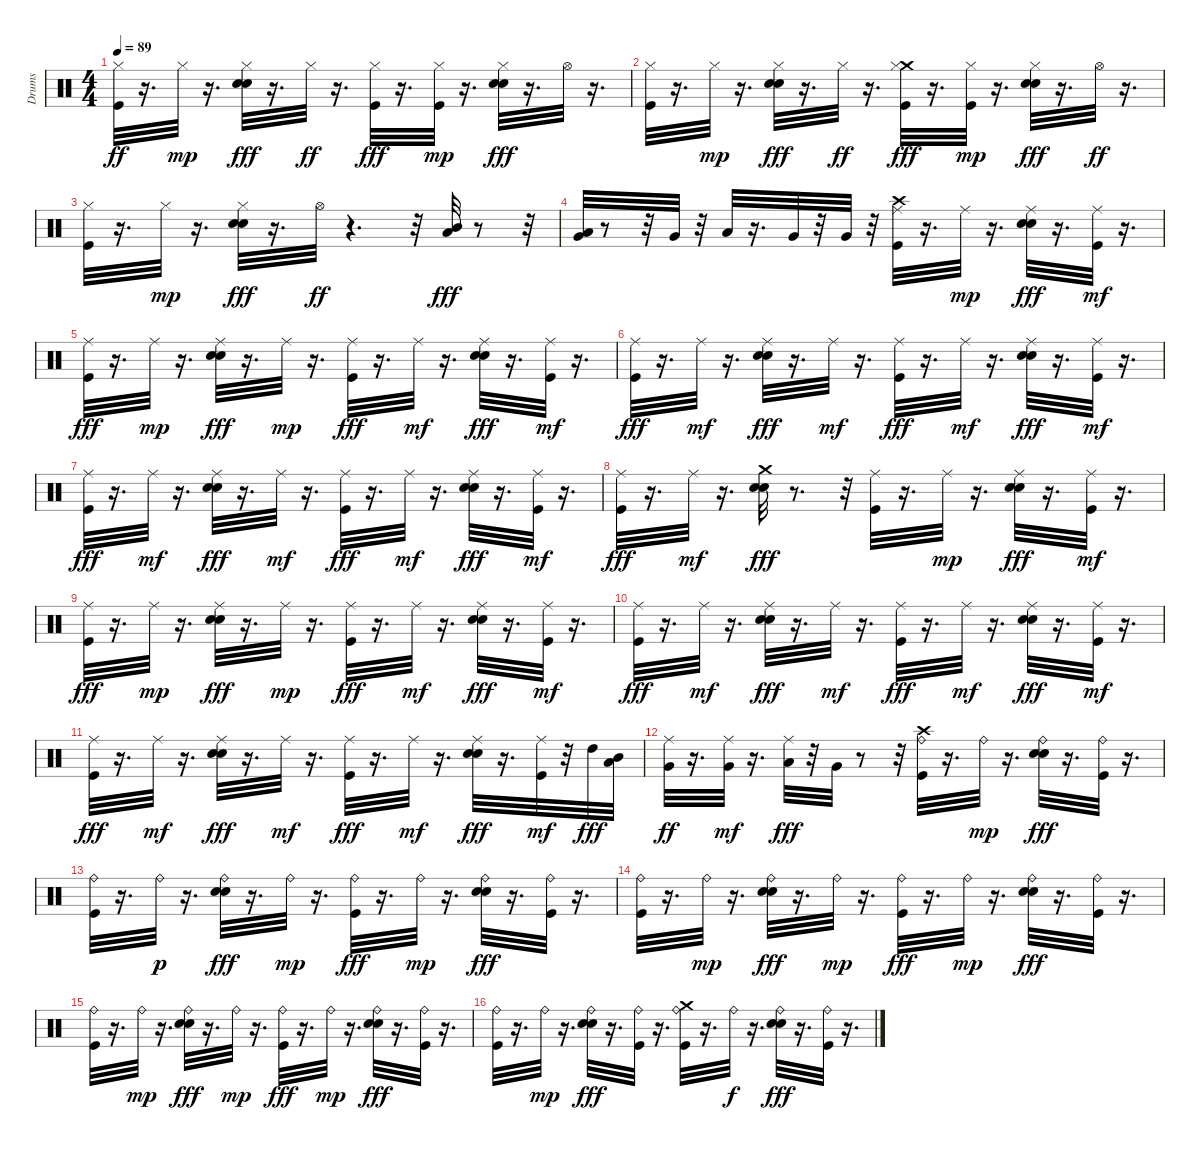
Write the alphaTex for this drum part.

\track ("Drums" "Drums") {instrument percussion}
\staff {score}
\articulation defaults
\ts (4 4)
\tempo 89
\clef neutral
\ks c
("Kick (hit)" "Hi-Hat (closed)").32{dy ff} r.16{d} "Hi-Hat (closed)".32{dy mp} r.16{d} ("Electric Snare (hit)" "Hi-Hat (closed)" "Snare (hit) 2").32{dy fff} r.16{d} "Hi-Hat (closed)".32{dy ff} r.16{d} ("Kick (hit)" "Hi-Hat (closed)").32{dy fff} r.16{d} ("Kick (hit)" "Hi-Hat (closed)").32{dy mp} r.16{d} ("Electric Snare (hit)" "Hi-Hat (closed)" "Snare (hit) 2").32{dy fff} r.16{d} "Hi-Hat (open)".32 r.16{d} |
("Kick (hit)" "Hi-Hat (closed)").32 r.16{d} "Hi-Hat (closed)".32{dy mp} r.16{d} ("Electric Snare (hit)" "Hi-Hat (closed)" "Snare (hit) 2").32{dy fff} r.16{d} "Hi-Hat (closed)".32{dy ff} r.16{d} ("Crash medium (hit)" "Hi-Hat (closed)" "Kick (hit)").32{dy fff} r.16{d} ("Kick (hit)" "Hi-Hat (closed)").32{dy mp} r.16{d} ("Electric Snare (hit)" "Hi-Hat (closed)" "Snare (hit) 2").32{dy fff} r.16{d} "Hi-Hat (open)".32{dy ff} r.16{d} |
("Kick (hit)" "Hi-Hat (closed)").32 r.16{d} "Hi-Hat (closed)".32{dy mp} r.16{d} ("Electric Snare (hit)" "Hi-Hat (closed)" "Snare (hit) 2").32{dy fff} r.16{d} "Hi-Hat (open)".32{dy ff} r.4{d} r.32 ("Mid Tom (hit)" "Low Tom (hit)").32{dy fff} r.8 r.32 |
("Low Tom (hit)" "Very Low Tom (hit)").32 r.8 r.32 "Very Low Tom (hit)".32 r.32 "Low Tom (hit)".32 r.16{d} "Very Low Tom (hit)".32 r.32 "Very Low Tom (hit)".32 r.32 ("Crash high (hit)" "Ride (middle)" "Kick (hit)").32 r.16{d} "Ride (middle)".32{dy mp} r.16{d} ("Snare (hit) 2" "Electric Snare (hit)" "Ride (middle)").32{dy fff} r.16{d} ("Kick (hit)" "Ride (middle)").32{dy mf} r.16{d} |
("Kick (hit)" "Ride (middle)").32{dy fff} r.16{d} "Ride (middle)".32{dy mp} r.16{d} ("Ride (middle)" "Snare (hit) 2" "Electric Snare (hit)").32{dy fff} r.16{d} "Ride (middle)".32{dy mp} r.16{d} ("Kick (hit)" "Ride (middle)").32{dy fff} r.16{d} "Ride (middle)".32{dy mf} r.16{d} ("Ride (middle)" "Electric Snare (hit)" "Snare (hit) 2").32{dy fff} r.16{d} ("Kick (hit)" "Ride (middle)").32{dy mf} r.16{d} |
("Kick (hit)" "Ride (middle)").32{dy fff} r.16{d} "Ride (middle)".32{dy mf} r.16{d} ("Snare (hit) 2" "Electric Snare (hit)" "Ride (middle)").32{dy fff} r.16{d} "Ride (middle)".32{dy mf} r.16{d} ("Kick (hit)" "Ride (middle)").32{dy fff} r.16{d} "Ride (middle)".32{dy mf} r.16{d} ("Ride (middle)" "Electric Snare (hit)" "Snare (hit) 2").32{dy fff} r.16{d} ("Kick (hit)" "Ride (middle)").32{dy mf} r.16{d} |
("Kick (hit)" "Ride (middle)").32{dy fff} r.16{d} "Ride (middle)".32{dy mf} r.16{d} ("Snare (hit) 2" "Electric Snare (hit)" "Ride (middle)").32{dy fff} r.16{d} "Ride (middle)".32{dy mf} r.16{d} ("Kick (hit)" "Ride (middle)").32{dy fff} r.16{d} "Ride (middle)".32{dy mf} r.16{d} ("Ride (middle)" "Electric Snare (hit)" "Snare (hit) 2").32{dy fff} r.16{d} ("Kick (hit)" "Ride (middle)").32{dy mf} r.16{d} |
("Kick (hit)" "Ride (middle)").32{dy fff} r.16{d} "Ride (middle)".32{dy mf} r.16{d} ("Snare (hit) 2" "Electric Snare (hit)" "Crash medium (hit)").32{dy fff} r.8{d} r.32 ("Ride (middle)" "Kick (hit)").32 r.16{d} "Ride (middle)".32{dy mp} r.16{d} ("Snare (hit) 2" "Electric Snare (hit)" "Ride (middle)").32{dy fff} r.16{d} ("Kick (hit)" "Ride (middle)").32{dy mf} r.16{d} |
("Kick (hit)" "Ride (middle)").32{dy fff} r.16{d} "Ride (middle)".32{dy mp} r.16{d} ("Ride (middle)" "Snare (hit) 2" "Electric Snare (hit)").32{dy fff} r.16{d} "Ride (middle)".32{dy mp} r.16{d} ("Kick (hit)" "Ride (middle)").32{dy fff} r.16{d} "Ride (middle)".32{dy mf} r.16{d} ("Ride (middle)" "Electric Snare (hit)" "Snare (hit) 2").32{dy fff} r.16{d} ("Kick (hit)" "Ride (middle)").32{dy mf} r.16{d} |
("Kick (hit)" "Ride (middle)").32{dy fff} r.16{d} "Ride (middle)".32{dy mf} r.16{d} ("Snare (hit) 2" "Electric Snare (hit)" "Ride (middle)").32{dy fff} r.16{d} "Ride (middle)".32{dy mf} r.16{d} ("Kick (hit)" "Ride (middle)").32{dy fff} r.16{d} "Ride (middle)".32{dy mf} r.16{d} ("Ride (middle)" "Electric Snare (hit)" "Snare (hit) 2").32{dy fff} r.16{d} ("Kick (hit)" "Ride (middle)").32{dy mf} r.16{d} |
("Kick (hit)" "Ride (middle)").32{dy fff} r.16{d} "Ride (middle)".32{dy mf} r.16{d} ("Snare (hit) 2" "Electric Snare (hit)" "Ride (middle)").32{dy fff} r.16{d} "Ride (middle)".32{dy mf} r.16{d} ("Kick (hit)" "Ride (middle)").32{dy fff} r.16{d} "Ride (middle)".32{dy mf} r.16{d} ("Ride (middle)" "Electric Snare (hit)" "Snare (hit) 2").32{dy fff} r.16{d} ("Kick (hit)" "Ride (middle)").32{dy mf} r.32 "High Tom (hit)".32{dy fff} ("Mid Tom (hit)" "Low Tom (hit)").32 |
("Very Low Tom (hit)" "Ride (middle)").32{dy ff} r.16{d} ("Very Low Tom (hit)" "Ride (middle)").32{dy mf} r.16{d} ("Low Tom (hit)" "Ride (middle)").32{dy fff} r.32 "Very Low Tom (hit)".32 r.8 r.32 ("Ride (bell)" "Crash high (hit)" "Kick (hit)").32 r.16{d} "Ride (bell)".32{dy mp} r.16{d} ("Ride (bell)" "Snare (hit) 2" "Electric Snare (hit)").32{dy fff} r.16{d} ("Ride (bell)" "Kick (hit)").32 r.16{d} |
("Ride (bell)" "Kick (hit)").32 r.16{d} "Ride (bell)".32{dy p} r.16{d} ("Ride (bell)" "Snare (hit) 2" "Electric Snare (hit)").32{dy fff} r.16{d} "Ride (bell)".32{dy mp} r.16{d} ("Ride (bell)" "Kick (hit)").32{dy fff} r.16{d} "Ride (bell)".32{dy mp} r.16{d} ("Ride (bell)" "Electric Snare (hit)" "Snare (hit) 2").32{dy fff} r.16{d} ("Ride (bell)" "Kick (hit)").32 r.16{d} |
("Ride (bell)" "Kick (hit)").32 r.16{d} "Ride (bell)".32{dy mp} r.16{d} ("Ride (bell)" "Snare (hit) 2" "Electric Snare (hit)").32{dy fff} r.16{d} "Ride (bell)".32{dy mp} r.16{d} ("Ride (bell)" "Kick (hit)").32{dy fff} r.16{d} "Ride (bell)".32{dy mp} r.16{d} ("Ride (bell)" "Electric Snare (hit)" "Snare (hit) 2").32{dy fff} r.16{d} ("Ride (bell)" "Kick (hit)").32 r.16{d} |
("Ride (bell)" "Kick (hit)").32 r.16{d} "Ride (bell)".32{dy mp} r.16{d} ("Ride (bell)" "Snare (hit) 2" "Electric Snare (hit)").32{dy fff} r.16{d} "Ride (bell)".32{dy mp} r.16{d} ("Ride (bell)" "Kick (hit)").32{dy fff} r.16{d} "Ride (bell)".32{dy mp} r.16{d} ("Ride (bell)" "Electric Snare (hit)" "Snare (hit) 2").32{dy fff} r.16{d} ("Ride (bell)" "Kick (hit)").32 r.16{d} |
("Ride (bell)" "Kick (hit)").32 r.16{d} "Ride (bell)".32{dy mp} r.16{d} ("Ride (bell)" "Snare (hit) 2" "Electric Snare (hit)").32{dy fff} r.16{d} ("Ride (bell)" "Kick (hit)").32 r.16{d} ("Ride (bell)" "Crash medium (hit)" "Kick (hit)").32 r.16{d} "Ride (bell)".32{dy f} r.16{d} ("Ride (bell)" "Snare (hit) 2" "Electric Snare (hit)").32{dy fff} r.16{d} ("Ride (bell)" "Kick (hit)").32 r.16{d}
